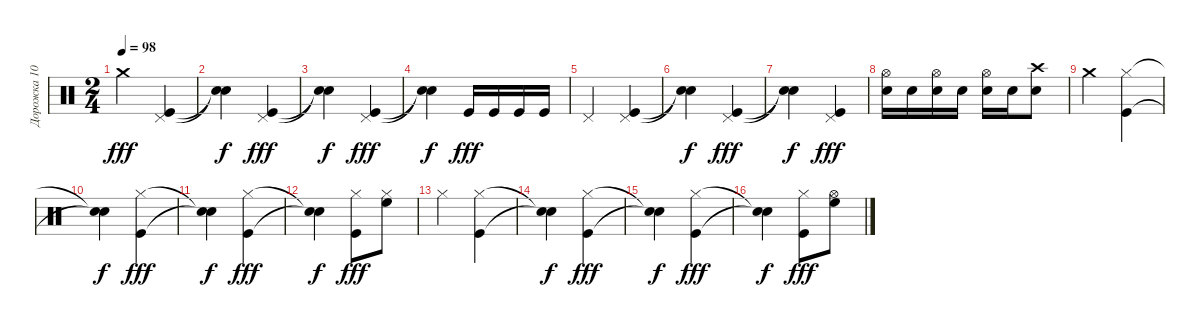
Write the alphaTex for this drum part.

\track ("Дорожка 10" "Дорожка 10") {instrument percussion}
\staff {score}
\articulation defaults
\ts (2 4)
\tempo 98
\clef neutral
\ks c "Crash medium (hit)".4{dy fff}
("Kick (hit)" "Pedal Hi-Hat (hit)").4 |
("Snare (hit)"{t} "Snare (hit)"{t}).4{dy f} ("Kick (hit)" "Pedal Hi-Hat (hit)").4{dy fff} |
("Snare (hit)"{t} "Snare (hit)"{t}).4{dy f} ("Kick (hit)" "Pedal Hi-Hat (hit)").4{dy fff} |
("Snare (hit)"{t} "Snare (hit)"{t}).4{dy f} "Kick (hit)".16{dy fff} "Kick (hit)".16 "Kick (hit)".16 "Kick (hit)".16 |
"Pedal Hi-Hat (hit)".4 ("Kick (hit)" "Pedal Hi-Hat (hit)").4 |
("Snare (hit)"{t} "Snare (hit)"{t}).4{dy f} ("Kick (hit)" "Pedal Hi-Hat (hit)").4{dy fff} |
("Snare (hit)"{t} "Snare (hit)"{t}).4{dy f} ("Kick (hit)" "Pedal Hi-Hat (hit)").4{dy fff} |
("Electric Snare (hit)" "Hi-Hat (open)").16 "Electric Snare (hit)".16 ("Electric Snare (hit)" "Hi-Hat (open)").16 "Snare (hit) 2".16 ("Snare (hit) 2" "Hi-Hat (open)").16 "Snare (hit) 2".16 ("Snare (hit) 2" "Crash high (hit)").8 |
"Crash medium (hit)".4 ("Kick (hit)" "Hi-Hat (closed)").4 |
("Snare (hit)"{t} "Snare (hit)"{t}).4{dy f} ("Kick (hit)" "Hi-Hat (closed)").4{dy fff} |
("Snare (hit)"{t} "Snare (hit)"{t}).4{dy f} ("Kick (hit)" "Hi-Hat (closed)").4{dy fff} |
("Snare (hit)"{t} "Snare (hit)"{t}).4{dy f} ("Kick (hit)" "Hi-Hat (closed)").8{dy fff} ("High Floor Tom (hit)" "Hi-Hat (closed)").8 |
"Hi-Hat (closed)".4 ("Kick (hit)" "Hi-Hat (closed)").4 |
("Snare (hit)"{t} "Snare (hit)"{t}).4{dy f} ("Kick (hit)" "Hi-Hat (closed)").4{dy fff} |
("Snare (hit)"{t} "Snare (hit)"{t}).4{dy f} ("Kick (hit)" "Hi-Hat (closed)").4{dy fff} |
("Snare (hit)"{t} "Snare (hit)"{t}).4{dy f} ("Kick (hit)" "Hi-Hat (closed)").8{dy fff} ("High Floor Tom (hit)" "Hi-Hat (open)").8
